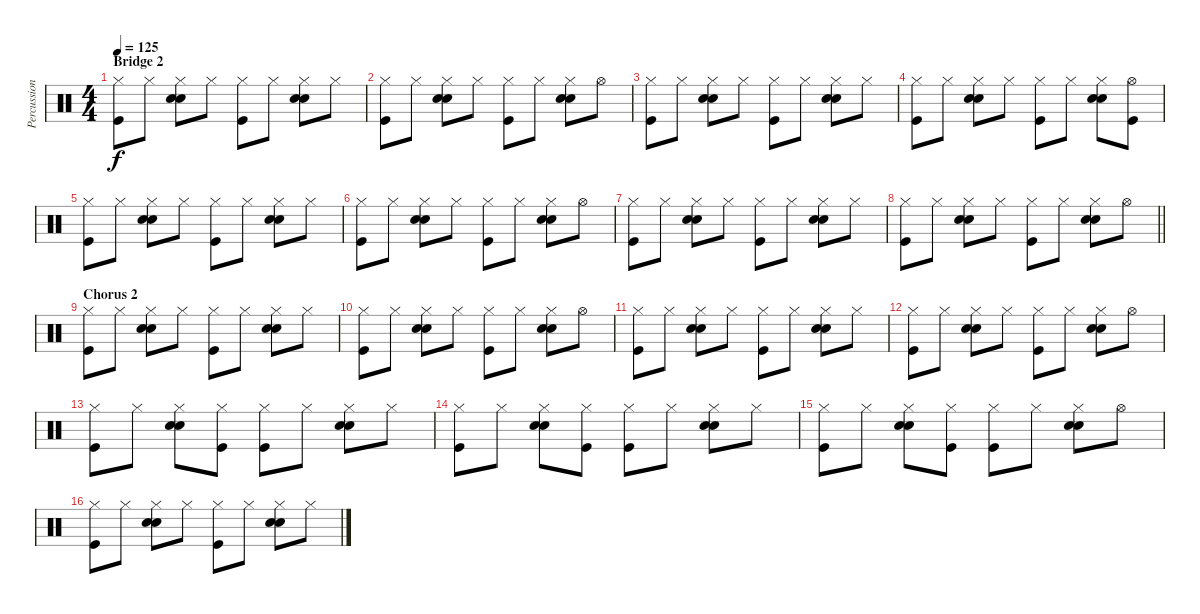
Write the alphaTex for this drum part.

\track ("Percussion" "Percussion") {instrument percussion}
\staff {score}
\articulation defaults
\ts (4 4)
\section ("" "Bridge 2")
\tempo 125
\clef neutral
\ks c
("Hi-Hat (closed)" "Kick (hit)").8{dy f} "Hi-Hat (closed)".8 ("Hi-Hat (closed)" "Hand Clap (hit)" "Snare (hit) 2").8 "Hi-Hat (closed)".8 ("Hi-Hat (closed)" "Kick (hit)").8 "Hi-Hat (closed)".8 ("Hi-Hat (closed)" "Hand Clap (hit)" "Snare (hit) 2").8 "Hi-Hat (closed)".8 |
("Hi-Hat (closed)" "Kick (hit)").8 "Hi-Hat (closed)".8 ("Hi-Hat (closed)" "Hand Clap (hit)" "Snare (hit) 2").8 "Hi-Hat (closed)".8 ("Hi-Hat (closed)" "Kick (hit)").8 "Hi-Hat (closed)".8 ("Hi-Hat (closed)" "Hand Clap (hit)" "Snare (hit) 2").8 "Hi-Hat (open)".8 |
("Hi-Hat (closed)" "Kick (hit)").8 "Hi-Hat (closed)".8 ("Hi-Hat (closed)" "Hand Clap (hit)" "Snare (hit) 2").8 "Hi-Hat (closed)".8 ("Hi-Hat (closed)" "Kick (hit)").8 "Hi-Hat (closed)".8 ("Hi-Hat (closed)" "Hand Clap (hit)" "Snare (hit) 2").8 "Hi-Hat (closed)".8 |
("Hi-Hat (closed)" "Kick (hit)").8 "Hi-Hat (closed)".8 ("Hi-Hat (closed)" "Hand Clap (hit)" "Snare (hit) 2").8 "Hi-Hat (closed)".8 ("Hi-Hat (closed)" "Kick (hit)").8 "Hi-Hat (closed)".8 ("Hi-Hat (closed)" "Hand Clap (hit)" "Snare (hit) 2").8 ("Hi-Hat (open)" "Kick (hit)").8 |
("Hi-Hat (closed)" "Kick (hit)").8 "Hi-Hat (closed)".8 ("Hi-Hat (closed)" "Hand Clap (hit)" "Snare (hit) 2").8 "Hi-Hat (closed)".8 ("Hi-Hat (closed)" "Kick (hit)").8 "Hi-Hat (closed)".8 ("Hi-Hat (closed)" "Hand Clap (hit)" "Snare (hit) 2").8 "Hi-Hat (closed)".8 |
("Hi-Hat (closed)" "Kick (hit)").8 "Hi-Hat (closed)".8 ("Hi-Hat (closed)" "Hand Clap (hit)" "Snare (hit) 2").8 "Hi-Hat (closed)".8 ("Hi-Hat (closed)" "Kick (hit)").8 "Hi-Hat (closed)".8 ("Hi-Hat (closed)" "Hand Clap (hit)" "Snare (hit) 2").8 "Hi-Hat (open)".8 |
("Hi-Hat (closed)" "Kick (hit)").8 "Hi-Hat (closed)".8 ("Hi-Hat (closed)" "Hand Clap (hit)" "Snare (hit) 2").8 "Hi-Hat (closed)".8 ("Hi-Hat (closed)" "Kick (hit)").8 "Hi-Hat (closed)".8 ("Hi-Hat (closed)" "Hand Clap (hit)" "Snare (hit) 2").8 "Hi-Hat (closed)".8 |
\barLineRight lightlight
("Hi-Hat (closed)" "Kick (hit)").8 "Hi-Hat (closed)".8 ("Hi-Hat (closed)" "Hand Clap (hit)" "Snare (hit) 2").8 "Hi-Hat (closed)".8 ("Hi-Hat (closed)" "Kick (hit)").8 "Hi-Hat (closed)".8 ("Hi-Hat (closed)" "Hand Clap (hit)" "Snare (hit) 2").8 "Hi-Hat (open)".8 |
\section ("" "Chorus 2")
("Hi-Hat (closed)" "Kick (hit)").8 "Hi-Hat (closed)".8 ("Hi-Hat (closed)" "Hand Clap (hit)" "Snare (hit) 2").8 "Hi-Hat (closed)".8 ("Hi-Hat (closed)" "Kick (hit)").8 "Hi-Hat (closed)".8 ("Hi-Hat (closed)" "Hand Clap (hit)" "Snare (hit) 2").8 "Hi-Hat (closed)".8 |
("Hi-Hat (closed)" "Kick (hit)").8 "Hi-Hat (closed)".8 ("Hi-Hat (closed)" "Hand Clap (hit)" "Snare (hit) 2").8 "Hi-Hat (closed)".8 ("Hi-Hat (closed)" "Kick (hit)").8 "Hi-Hat (closed)".8 ("Hi-Hat (closed)" "Hand Clap (hit)" "Snare (hit) 2").8 "Hi-Hat (open)".8 |
("Hi-Hat (closed)" "Kick (hit)").8 "Hi-Hat (closed)".8 ("Hi-Hat (closed)" "Hand Clap (hit)" "Snare (hit) 2").8 "Hi-Hat (closed)".8 ("Hi-Hat (closed)" "Kick (hit)").8 "Hi-Hat (closed)".8 ("Hi-Hat (closed)" "Hand Clap (hit)" "Snare (hit) 2").8 "Hi-Hat (closed)".8 |
("Hi-Hat (closed)" "Kick (hit)").8 "Hi-Hat (closed)".8 ("Hi-Hat (closed)" "Hand Clap (hit)" "Snare (hit) 2").8 "Hi-Hat (closed)".8 ("Hi-Hat (closed)" "Kick (hit)").8 "Hi-Hat (closed)".8 ("Hi-Hat (closed)" "Hand Clap (hit)" "Snare (hit) 2").8 "Hi-Hat (open)".8 |
("Hi-Hat (closed)" "Kick (hit)").8 "Hi-Hat (closed)".8 ("Hi-Hat (closed)" "Hand Clap (hit)" "Snare (hit) 2").8 ("Hi-Hat (closed)" "Kick (hit)").8 ("Hi-Hat (closed)" "Kick (hit)").8 "Hi-Hat (closed)".8 ("Hi-Hat (closed)" "Hand Clap (hit)" "Snare (hit) 2").8 "Hi-Hat (closed)".8 |
("Hi-Hat (closed)" "Kick (hit)").8 "Hi-Hat (closed)".8 ("Hi-Hat (closed)" "Hand Clap (hit)" "Snare (hit) 2").8 ("Hi-Hat (closed)" "Kick (hit)").8 ("Hi-Hat (closed)" "Kick (hit)").8 "Hi-Hat (closed)".8 ("Hi-Hat (closed)" "Hand Clap (hit)" "Snare (hit) 2").8 "Hi-Hat (closed)".8 |
("Hi-Hat (closed)" "Kick (hit)").8 "Hi-Hat (closed)".8 ("Hi-Hat (closed)" "Hand Clap (hit)" "Snare (hit) 2").8 ("Hi-Hat (closed)" "Kick (hit)").8 ("Hi-Hat (closed)" "Kick (hit)").8 "Hi-Hat (closed)".8 ("Hi-Hat (closed)" "Hand Clap (hit)" "Snare (hit) 2").8 "Hi-Hat (open)".8 |
("Hi-Hat (closed)" "Kick (hit)").8 "Hi-Hat (closed)".8 ("Hi-Hat (closed)" "Hand Clap (hit)" "Snare (hit) 2").8 "Hi-Hat (closed)".8 ("Hi-Hat (closed)" "Kick (hit)").8 "Hi-Hat (closed)".8 ("Hi-Hat (closed)" "Hand Clap (hit)" "Snare (hit) 2").8 "Hi-Hat (closed)".8
